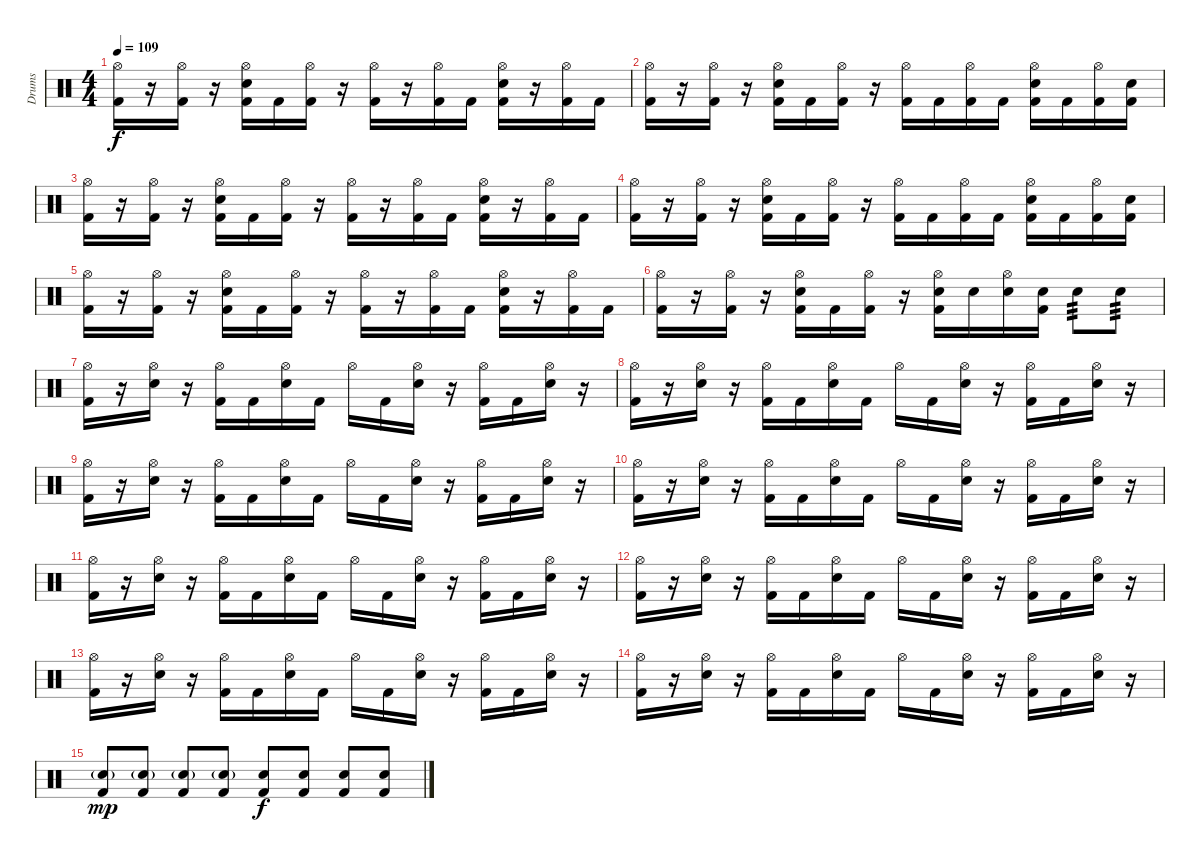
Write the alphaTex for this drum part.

\track ("Drums" "Drums") {instrument percussion}
\staff {score}
\articulation defaults
\ts (4 4)
\tempo 109
\clef neutral
\ks c
("Hi-Hat (open)" "Kick (hit) 2").16{dy f} r.16 ("Hi-Hat (open)" "Kick (hit) 2").16 r.16 ("Hi-Hat (open)" "Electric Snare (hit)" "Kick (hit) 2").16 "Kick (hit) 2".16 ("Hi-Hat (open)" "Kick (hit) 2").16 r.16 ("Hi-Hat (open)" "Kick (hit) 2").16 r.16 ("Hi-Hat (open)" "Kick (hit) 2").16 "Kick (hit) 2".16 ("Hi-Hat (open)" "Electric Snare (hit)" "Kick (hit) 2").16 r.16 ("Hi-Hat (open)" "Kick (hit) 2").16 "Kick (hit) 2".16 |
("Hi-Hat (open)" "Kick (hit) 2").16 r.16 ("Hi-Hat (open)" "Kick (hit) 2").16 r.16 ("Hi-Hat (open)" "Electric Snare (hit)" "Kick (hit) 2").16 "Kick (hit) 2".16 ("Hi-Hat (open)" "Kick (hit) 2").16 r.16 ("Hi-Hat (open)" "Kick (hit) 2").16 "Kick (hit) 2".16 ("Hi-Hat (open)" "Kick (hit) 2").16 "Kick (hit) 2".16 ("Hi-Hat (open)" "Electric Snare (hit)" "Kick (hit) 2").16 "Kick (hit) 2".16 ("Hi-Hat (open)" "Kick (hit) 2").16 ("Electric Snare (hit)" "Kick (hit) 2").16 |
("Hi-Hat (open)" "Kick (hit) 2").16 r.16 ("Hi-Hat (open)" "Kick (hit) 2").16 r.16 ("Hi-Hat (open)" "Electric Snare (hit)" "Kick (hit) 2").16 "Kick (hit) 2".16 ("Hi-Hat (open)" "Kick (hit) 2").16 r.16 ("Hi-Hat (open)" "Kick (hit) 2").16 r.16 ("Hi-Hat (open)" "Kick (hit) 2").16 "Kick (hit) 2".16 ("Hi-Hat (open)" "Electric Snare (hit)" "Kick (hit) 2").16 r.16 ("Hi-Hat (open)" "Kick (hit) 2").16 "Kick (hit) 2".16 |
("Hi-Hat (open)" "Kick (hit) 2").16 r.16 ("Hi-Hat (open)" "Kick (hit) 2").16 r.16 ("Hi-Hat (open)" "Electric Snare (hit)" "Kick (hit) 2").16 "Kick (hit) 2".16 ("Hi-Hat (open)" "Kick (hit) 2").16 r.16 ("Hi-Hat (open)" "Kick (hit) 2").16 "Kick (hit) 2".16 ("Hi-Hat (open)" "Kick (hit) 2").16 "Kick (hit) 2".16 ("Hi-Hat (open)" "Electric Snare (hit)" "Kick (hit) 2").16 "Kick (hit) 2".16 ("Hi-Hat (open)" "Kick (hit) 2").16 ("Electric Snare (hit)" "Kick (hit) 2").16 |
("Hi-Hat (open)" "Kick (hit) 2").16 r.16 ("Hi-Hat (open)" "Kick (hit) 2").16 r.16 ("Hi-Hat (open)" "Electric Snare (hit)" "Kick (hit) 2").16 "Kick (hit) 2".16 ("Hi-Hat (open)" "Kick (hit) 2").16 r.16 ("Hi-Hat (open)" "Kick (hit) 2").16 r.16 ("Hi-Hat (open)" "Kick (hit) 2").16 "Kick (hit) 2".16 ("Hi-Hat (open)" "Electric Snare (hit)" "Kick (hit) 2").16 r.16 ("Hi-Hat (open)" "Kick (hit) 2").16 "Kick (hit) 2".16 |
("Hi-Hat (open)" "Kick (hit) 2").16 r.16 ("Hi-Hat (open)" "Kick (hit) 2").16 r.16 ("Hi-Hat (open)" "Electric Snare (hit)" "Kick (hit) 2").16 "Kick (hit) 2".16 ("Hi-Hat (open)" "Kick (hit) 2").16 r.16 ("Hi-Hat (open)" "Electric Snare (hit)" "Kick (hit) 2").16 "Electric Snare (hit)".16 ("Hi-Hat (open)" "Electric Snare (hit)").16 ("Electric Snare (hit)" "Kick (hit) 2").16 "Electric Snare (hit)".8{tp 3} "Electric Snare (hit)".8{tp 3} |
("Hi-Hat (open)" "Kick (hit) 2").16 r.16 ("Hi-Hat (open)" "Electric Snare (hit)").16 r.16 ("Hi-Hat (open)" "Kick (hit) 2").16 "Kick (hit) 2".16 ("Hi-Hat (open)" "Electric Snare (hit)").16 "Kick (hit) 2".16 "Hi-Hat (open)".16 "Kick (hit) 2".16 ("Hi-Hat (open)" "Electric Snare (hit)").16 r.16 ("Hi-Hat (open)" "Kick (hit) 2").16 "Kick (hit) 2".16 ("Hi-Hat (open)" "Electric Snare (hit)").16 r.16 |
("Hi-Hat (open)" "Kick (hit) 2").16 r.16 ("Hi-Hat (open)" "Electric Snare (hit)").16 r.16 ("Hi-Hat (open)" "Kick (hit) 2").16 "Kick (hit) 2".16 ("Hi-Hat (open)" "Electric Snare (hit)").16 "Kick (hit) 2".16 "Hi-Hat (open)".16 "Kick (hit) 2".16 ("Hi-Hat (open)" "Electric Snare (hit)").16 r.16 ("Hi-Hat (open)" "Kick (hit) 2").16 "Kick (hit) 2".16 ("Hi-Hat (open)" "Electric Snare (hit)").16 r.16 |
("Hi-Hat (open)" "Kick (hit) 2").16 r.16 ("Hi-Hat (open)" "Electric Snare (hit)").16 r.16 ("Hi-Hat (open)" "Kick (hit) 2").16 "Kick (hit) 2".16 ("Hi-Hat (open)" "Electric Snare (hit)").16 "Kick (hit) 2".16 "Hi-Hat (open)".16 "Kick (hit) 2".16 ("Hi-Hat (open)" "Electric Snare (hit)").16 r.16 ("Hi-Hat (open)" "Kick (hit) 2").16 "Kick (hit) 2".16 ("Hi-Hat (open)" "Electric Snare (hit)").16 r.16 |
("Hi-Hat (open)" "Kick (hit) 2").16 r.16 ("Hi-Hat (open)" "Electric Snare (hit)").16 r.16 ("Hi-Hat (open)" "Kick (hit) 2").16 "Kick (hit) 2".16 ("Hi-Hat (open)" "Electric Snare (hit)").16 "Kick (hit) 2".16 "Hi-Hat (open)".16 "Kick (hit) 2".16 ("Hi-Hat (open)" "Electric Snare (hit)").16 r.16 ("Hi-Hat (open)" "Kick (hit) 2").16 "Kick (hit) 2".16 ("Hi-Hat (open)" "Electric Snare (hit)").16 r.16 |
("Hi-Hat (open)" "Kick (hit) 2").16 r.16 ("Hi-Hat (open)" "Electric Snare (hit)").16 r.16 ("Hi-Hat (open)" "Kick (hit) 2").16 "Kick (hit) 2".16 ("Hi-Hat (open)" "Electric Snare (hit)").16 "Kick (hit) 2".16 "Hi-Hat (open)".16 "Kick (hit) 2".16 ("Hi-Hat (open)" "Electric Snare (hit)").16 r.16 ("Hi-Hat (open)" "Kick (hit) 2").16 "Kick (hit) 2".16 ("Hi-Hat (open)" "Electric Snare (hit)").16 r.16 |
("Hi-Hat (open)" "Kick (hit) 2").16 r.16 ("Hi-Hat (open)" "Electric Snare (hit)").16 r.16 ("Hi-Hat (open)" "Kick (hit) 2").16 "Kick (hit) 2".16 ("Hi-Hat (open)" "Electric Snare (hit)").16 "Kick (hit) 2".16 "Hi-Hat (open)".16 "Kick (hit) 2".16 ("Hi-Hat (open)" "Electric Snare (hit)").16 r.16 ("Hi-Hat (open)" "Kick (hit) 2").16 "Kick (hit) 2".16 ("Hi-Hat (open)" "Electric Snare (hit)").16 r.16 |
("Hi-Hat (open)" "Kick (hit) 2").16 r.16 ("Hi-Hat (open)" "Electric Snare (hit)").16 r.16 ("Hi-Hat (open)" "Kick (hit) 2").16 "Kick (hit) 2".16 ("Hi-Hat (open)" "Electric Snare (hit)").16 "Kick (hit) 2".16 "Hi-Hat (open)".16 "Kick (hit) 2".16 ("Hi-Hat (open)" "Electric Snare (hit)").16 r.16 ("Hi-Hat (open)" "Kick (hit) 2").16 "Kick (hit) 2".16 ("Hi-Hat (open)" "Electric Snare (hit)").16 r.16 |
("Hi-Hat (open)" "Kick (hit) 2").16 r.16 ("Hi-Hat (open)" "Electric Snare (hit)").16 r.16 ("Hi-Hat (open)" "Kick (hit) 2").16 "Kick (hit) 2".16 ("Hi-Hat (open)" "Electric Snare (hit)").16 "Kick (hit) 2".16 "Hi-Hat (open)".16 "Kick (hit) 2".16 ("Hi-Hat (open)" "Electric Snare (hit)").16 r.16 ("Hi-Hat (open)" "Kick (hit) 2").16 "Kick (hit) 2".16 ("Hi-Hat (open)" "Electric Snare (hit)").16 r.16 |
("Electric Snare (hit)"{g} "Kick (hit) 2").8{dy mp} ("Electric Snare (hit)"{g} "Kick (hit) 2").8 ("Electric Snare (hit)"{g} "Kick (hit) 2").8 ("Electric Snare (hit)"{g} "Kick (hit) 2").8 ("Electric Snare (hit)" "Kick (hit) 2").8{dy f} ("Electric Snare (hit)" "Kick (hit) 2").8 ("Electric Snare (hit)" "Kick (hit) 2").8 ("Electric Snare (hit)" "Kick (hit) 2").8
